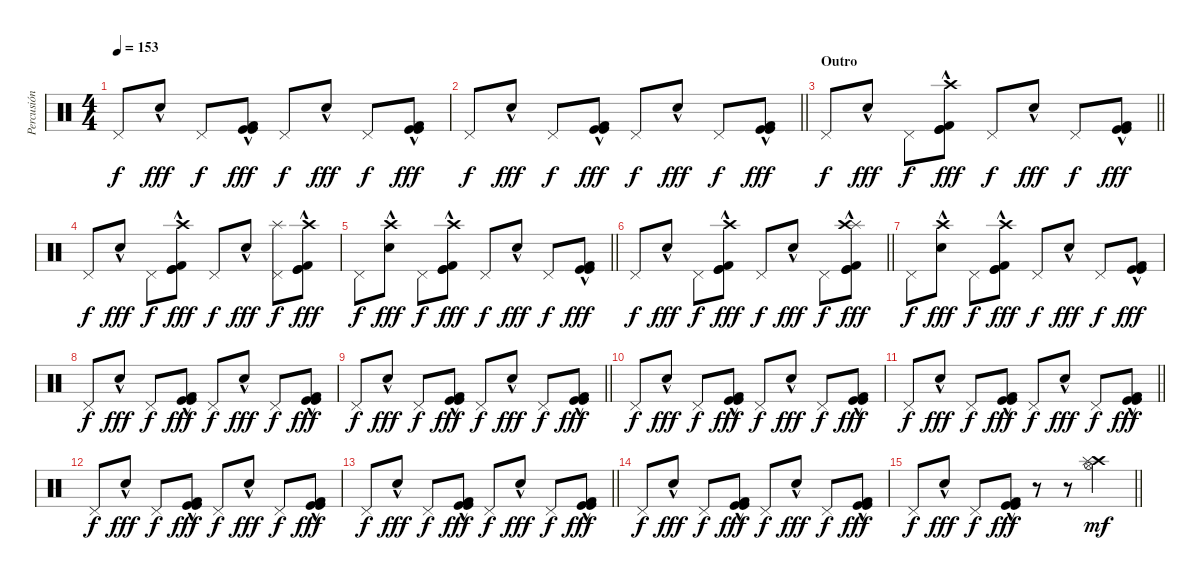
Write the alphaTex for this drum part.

\track ("Percusión (Javi Molina)" "Percusión ") {instrument percussion}
\staff {score}
\articulation defaults
\ts (4 4)
\tempo 153
\clef neutral
\ks c "Pedal Hi-Hat (hit)".8{dy f} "Electric Snare (hit)"{hac}.8{dy fff} "Pedal Hi-Hat (hit)".8{dy f}
("Kick (hit) 2"{hac} "Kick (hit)"{hac} "Kick (hit)"{hac}).8{dy fff} "Pedal Hi-Hat (hit)".8{dy f} "Electric Snare (hit)"{hac}.8{dy fff} "Pedal Hi-Hat (hit)".8{dy f} ("Kick (hit) 2"{hac} "Kick (hit)"{hac} "Kick (hit)"{hac}).8{dy fff} |
\barLineRight lightlight "Pedal Hi-Hat (hit)".8{dy f} "Electric Snare (hit)"{hac}.8{dy fff} "Pedal Hi-Hat (hit)".8{dy f}
("Kick (hit) 2"{hac} "Kick (hit)"{hac} "Kick (hit)"{hac}).8{dy fff} "Pedal Hi-Hat (hit)".8{dy f} "Electric Snare (hit)"{hac}.8{dy fff} "Pedal Hi-Hat (hit)".8{dy f} ("Kick (hit) 2"{hac} "Kick (hit)"{hac} "Kick (hit)"{hac}).8{dy fff} |
\section ("" "Outro")
\barLineRight lightlight "Pedal Hi-Hat (hit)".8{dy f} "Electric Snare (hit)"{hac}.8{dy fff} "Pedal Hi-Hat (hit)".8{dy f}
("Kick (hit) 2"{hac} "Kick (hit)"{hac} "Kick (hit)"{hac} "Crash high (hit)").8{dy fff} "Pedal Hi-Hat (hit)".8{dy f} "Electric Snare (hit)"{hac}.8{dy fff} "Pedal Hi-Hat (hit)".8{dy f} ("Kick (hit) 2"{hac} "Kick (hit)"{hac} "Kick (hit)"{hac}).8{dy fff} |
"Pedal Hi-Hat (hit)".8{dy f} "Electric Snare (hit)"{hac}.8{dy fff} "Pedal Hi-Hat (hit)".8{dy f} ("Kick (hit) 2"{hac} "Kick (hit)"{hac} "Kick (hit)"{hac} "Crash high (hit)").8{dy fff} "Pedal Hi-Hat (hit)".8{dy f} "Electric Snare (hit)"{hac}.8{dy fff} ("Pedal Hi-Hat (hit)" "Splash (hit)").8{dy f} ("Kick (hit) 2"{hac} "Kick (hit)"{hac} "Kick (hit)"{hac} "Crash high (hit)").8{dy fff} |
\barLineRight lightlight "Pedal Hi-Hat (hit)".8{dy f}
("Electric Snare (hit)"{hac} "Crash high (hit)").8{dy fff} "Pedal Hi-Hat (hit)".8{dy f} ("Kick (hit) 2"{hac} "Kick (hit)"{hac} "Kick (hit)"{hac} "Crash high (hit)").8{dy fff} "Pedal Hi-Hat (hit)".8{dy f} "Electric Snare (hit)"{hac}.8{dy fff} "Pedal Hi-Hat (hit)".8{dy f} ("Kick (hit) 2"{hac} "Kick (hit)"{hac} "Kick (hit)"{hac}).8{dy fff} |
\barLineRight lightlight "Pedal Hi-Hat (hit)".8{dy f} "Electric Snare (hit)"{hac}.8{dy fff} "Pedal Hi-Hat (hit)".8{dy f}
("Kick (hit) 2"{hac} "Kick (hit)"{hac} "Kick (hit)"{hac} "Crash high (hit)").8{dy fff} "Pedal Hi-Hat (hit)".8{dy f} "Electric Snare (hit)"{hac}.8{dy fff} "Pedal Hi-Hat (hit)".8{dy f} ("Kick (hit) 2"{hac} "Kick (hit)"{hac} "Kick (hit)"{hac} "Splash (hit)" "Crash high (hit)").8{dy fff} |
"Pedal Hi-Hat (hit)".8{dy f} ("Electric Snare (hit)"{hac} "Crash high (hit)").8{dy fff} "Pedal Hi-Hat (hit)".8{dy f} ("Kick (hit) 2"{hac} "Kick (hit)"{hac} "Kick (hit)"{hac} "Crash high (hit)").8{dy fff} "Pedal Hi-Hat (hit)".8{dy f} "Electric Snare (hit)"{hac}.8{dy fff} "Pedal Hi-Hat (hit)".8{dy f} ("Kick (hit) 2"{hac} "Kick (hit)"{hac} "Kick (hit)"{hac}).8{dy fff} |
"Pedal Hi-Hat (hit)".8{dy f} "Electric Snare (hit)"{hac}.8{dy fff} "Pedal Hi-Hat (hit)".8{dy f} ("Kick (hit) 2"{hac} "Kick (hit)"{hac} "Kick (hit)"{hac}).8{dy fff} "Pedal Hi-Hat (hit)".8{dy f} "Electric Snare (hit)"{hac}.8{dy fff} "Pedal Hi-Hat (hit)".8{dy f} ("Kick (hit) 2"{hac} "Kick (hit)"{hac} "Kick (hit)"{hac}).8{dy fff} |
\barLineRight lightlight "Pedal Hi-Hat (hit)".8{dy f} "Electric Snare (hit)"{hac}.8{dy fff} "Pedal Hi-Hat (hit)".8{dy f}
("Kick (hit) 2"{hac} "Kick (hit)"{hac} "Kick (hit)"{hac}).8{dy fff} "Pedal Hi-Hat (hit)".8{dy f} "Electric Snare (hit)"{hac}.8{dy fff} "Pedal Hi-Hat (hit)".8{dy f} ("Kick (hit) 2"{hac} "Kick (hit)"{hac} "Kick (hit)"{hac}).8{dy fff} |
"Pedal Hi-Hat (hit)".8{dy f} "Electric Snare (hit)"{hac}.8{dy fff} "Pedal Hi-Hat (hit)".8{dy f} ("Kick (hit) 2"{hac} "Kick (hit)"{hac} "Kick (hit)"{hac}).8{dy fff} "Pedal Hi-Hat (hit)".8{dy f} "Electric Snare (hit)"{hac}.8{dy fff} "Pedal Hi-Hat (hit)".8{dy f} ("Kick (hit) 2"{hac} "Kick (hit)"{hac} "Kick (hit)"{hac}).8{dy fff} |
\barLineRight lightlight "Pedal Hi-Hat (hit)".8{dy f} "Electric Snare (hit)"{hac}.8{dy fff} "Pedal Hi-Hat (hit)".8{dy f}
("Kick (hit) 2"{hac} "Kick (hit)"{hac} "Kick (hit)"{hac}).8{dy fff} "Pedal Hi-Hat (hit)".8{dy f} "Electric Snare (hit)"{hac}.8{dy fff} "Pedal Hi-Hat (hit)".8{dy f} ("Kick (hit) 2"{hac} "Kick (hit)"{hac} "Kick (hit)"{hac}).8{dy fff} |
"Pedal Hi-Hat (hit)".8{dy f} "Electric Snare (hit)"{hac}.8{dy fff} "Pedal Hi-Hat (hit)".8{dy f} ("Kick (hit) 2"{hac} "Kick (hit)"{hac} "Kick (hit)"{hac}).8{dy fff} "Pedal Hi-Hat (hit)".8{dy f} "Electric Snare (hit)"{hac}.8{dy fff} "Pedal Hi-Hat (hit)".8{dy f} ("Kick (hit) 2"{hac} "Kick (hit)"{hac} "Kick (hit)"{hac}).8{dy fff} |
\barLineRight lightlight "Pedal Hi-Hat (hit)".8{dy f} "Electric Snare (hit)"{hac}.8{dy fff} "Pedal Hi-Hat (hit)".8{dy f}
("Kick (hit) 2"{hac} "Kick (hit)"{hac} "Kick (hit)"{hac}).8{dy fff} "Pedal Hi-Hat (hit)".8{dy f} "Electric Snare (hit)"{hac}.8{dy fff} "Pedal Hi-Hat (hit)".8{dy f} ("Kick (hit) 2"{hac} "Kick (hit)"{hac} "Kick (hit)"{hac}).8{dy fff} |
"Pedal Hi-Hat (hit)".8{dy f} "Electric Snare (hit)"{hac}.8{dy fff} "Pedal Hi-Hat (hit)".8{dy f} ("Kick (hit) 2"{hac} "Kick (hit)"{hac} "Kick (hit)"{hac}).8{dy fff} "Pedal Hi-Hat (hit)".8{dy f} "Electric Snare (hit)"{hac}.8{dy fff} "Pedal Hi-Hat (hit)".8{dy f} ("Kick (hit) 2"{hac} "Kick (hit)"{hac} "Kick (hit)"{hac}).8{dy fff} |
\barLineRight lightlight "Pedal Hi-Hat (hit)".8{dy f} "Electric Snare (hit)"{hac}.8{dy fff} "Pedal Hi-Hat (hit)".8{dy f}
("Kick (hit) 2"{hac} "Kick (hit)"{hac} "Kick (hit)"{hac}).8{dy fff} r.8 r.8 ("Crash high (hit)" "Splash (hit)" "Hi-Hat (open)").4{dy mf}
